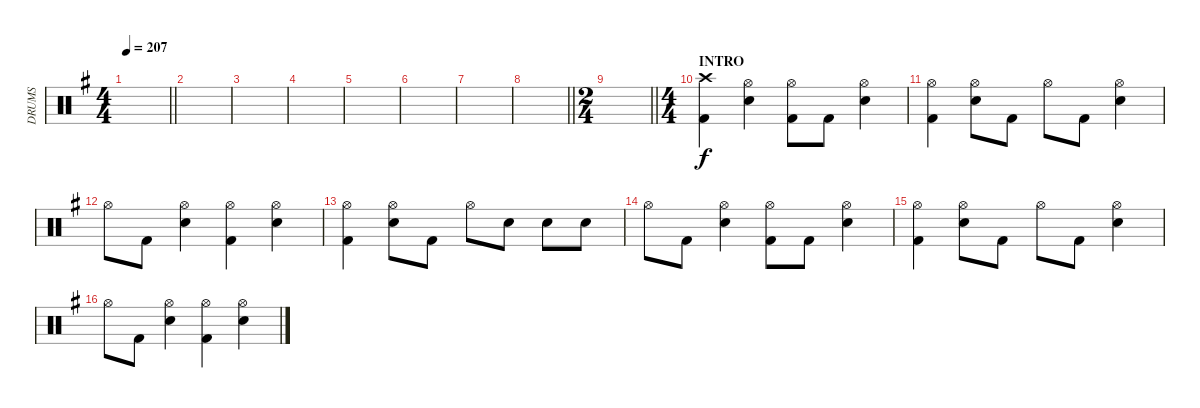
\track ("DRUMS" "DRUMS") {instrument percussion}
\staff {score}
\articulation defaults
\ts (4 4)
\tempo 207
\clef neutral
\barLineRight lightlight
\ks eminor
|
|
|
|
|
|
|
\barLineRight lightlight
|
\ts (2 4)
\barLineRight lightlight
|
\ts (4 4)
\section ("" "INTRO")
("Crash high (hit)" "Kick (hit) 2").4 ("Hi-Hat (open)" "Snare (hit) 2").4 ("Hi-Hat (open)" "Kick (hit) 2").8 "Kick (hit) 2".8 ("Hi-Hat (open)" "Snare (hit) 2").4 |
("Hi-Hat (open)" "Kick (hit) 2").4 ("Hi-Hat (open)" "Snare (hit) 2").8 "Kick (hit) 2".8 "Hi-Hat (open)".8 "Kick (hit) 2".8 ("Hi-Hat (open)" "Snare (hit) 2").4 |
"Hi-Hat (open)".8 "Kick (hit) 2".8 ("Hi-Hat (open)" "Snare (hit) 2").4 ("Hi-Hat (open)" "Kick (hit) 2").4 ("Hi-Hat (open)" "Snare (hit) 2").4 |
("Hi-Hat (open)" "Kick (hit) 2").4 ("Hi-Hat (open)" "Snare (hit) 2").8 "Kick (hit) 2".8 "Hi-Hat (open)".8 "Snare (hit) 2".8 "Snare (hit) 2".8 "Snare (hit) 2".8 |
"Hi-Hat (open)".8 "Kick (hit) 2".8 ("Hi-Hat (open)" "Snare (hit) 2").4 ("Hi-Hat (open)" "Kick (hit) 2").8 "Kick (hit) 2".8 ("Hi-Hat (open)" "Snare (hit) 2").4 |
("Hi-Hat (open)" "Kick (hit) 2").4 ("Hi-Hat (open)" "Snare (hit) 2").8 "Kick (hit) 2".8 "Hi-Hat (open)".8 "Kick (hit) 2".8 ("Hi-Hat (open)" "Snare (hit) 2").4 |
"Hi-Hat (open)".8 "Kick (hit) 2".8 ("Hi-Hat (open)" "Snare (hit) 2").4 ("Hi-Hat (open)" "Kick (hit) 2").4 ("Hi-Hat (open)" "Snare (hit) 2").4
